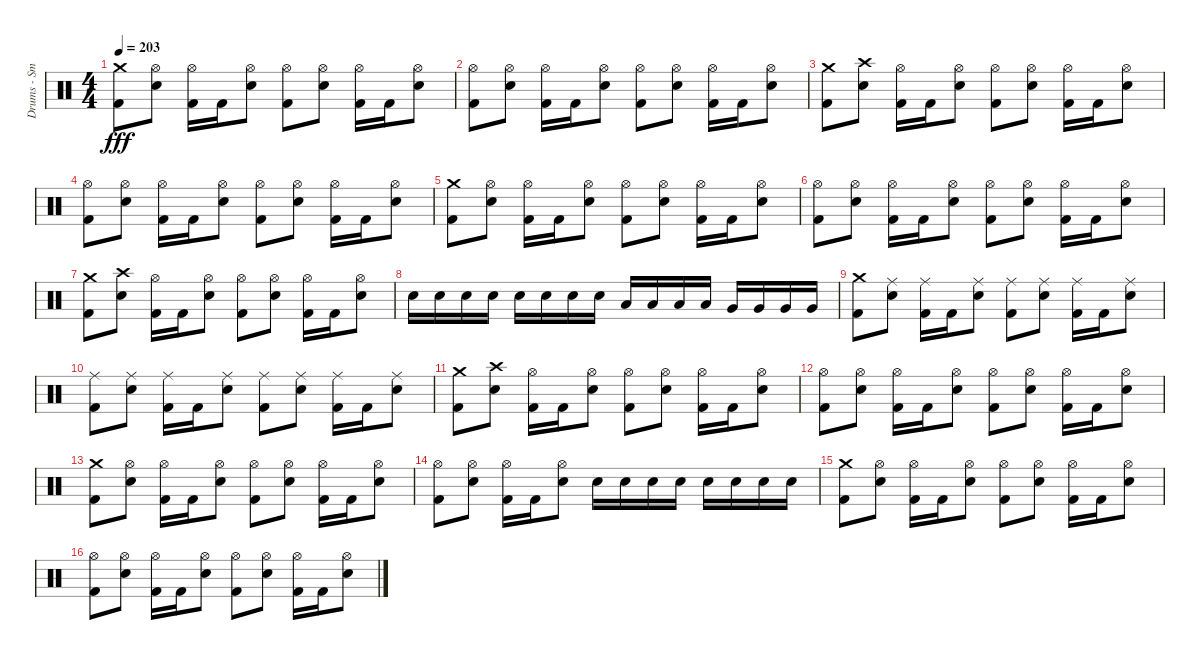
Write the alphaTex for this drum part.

\track ("Drums - Smelly" "Drums - Sm") {instrument percussion}
\staff {score}
\articulation defaults
\ts (4 4)
\tempo 203
\clef neutral
\ks c
("Kick (hit) 2" "Crash medium (hit)").8{dy fff} ("Electric Snare (hit)" "Hi-Hat (open)").8 ("Kick (hit) 2" "Hi-Hat (open)").16 "Kick (hit) 2".16 ("Electric Snare (hit)" "Hi-Hat (open)").8 ("Kick (hit) 2" "Hi-Hat (open)").8 ("Electric Snare (hit)" "Hi-Hat (open)").8 ("Kick (hit) 2" "Hi-Hat (open)").16 "Kick (hit) 2".16 ("Electric Snare (hit)" "Hi-Hat (open)").8 |
("Kick (hit) 2" "Hi-Hat (open)").8 ("Electric Snare (hit)" "Hi-Hat (open)").8 ("Kick (hit) 2" "Hi-Hat (open)").16 "Kick (hit) 2".16 ("Electric Snare (hit)" "Hi-Hat (open)").8 ("Kick (hit) 2" "Hi-Hat (open)").8 ("Electric Snare (hit)" "Hi-Hat (open)").8 ("Kick (hit) 2" "Hi-Hat (open)").16 "Kick (hit) 2".16 ("Electric Snare (hit)" "Hi-Hat (open)").8 |
("Kick (hit) 2" "Crash medium (hit)").8 ("Electric Snare (hit)" "Crash high (hit)").8 ("Kick (hit) 2" "Hi-Hat (open)").16 "Kick (hit) 2".16 ("Electric Snare (hit)" "Hi-Hat (open)").8 ("Kick (hit) 2" "Hi-Hat (open)").8 ("Electric Snare (hit)" "Hi-Hat (open)").8 ("Kick (hit) 2" "Hi-Hat (open)").16 "Kick (hit) 2".16 ("Electric Snare (hit)" "Hi-Hat (open)").8 |
("Kick (hit) 2" "Hi-Hat (open)").8 ("Electric Snare (hit)" "Hi-Hat (open)").8 ("Kick (hit) 2" "Hi-Hat (open)").16 "Kick (hit) 2".16 ("Electric Snare (hit)" "Hi-Hat (open)").8 ("Kick (hit) 2" "Hi-Hat (open)").8 ("Electric Snare (hit)" "Hi-Hat (open)").8 ("Kick (hit) 2" "Hi-Hat (open)").16 "Kick (hit) 2".16 ("Electric Snare (hit)" "Hi-Hat (open)").8 |
("Kick (hit) 2" "Crash medium (hit)").8 ("Electric Snare (hit)" "Hi-Hat (open)").8 ("Kick (hit) 2" "Hi-Hat (open)").16 "Kick (hit) 2".16 ("Electric Snare (hit)" "Hi-Hat (open)").8 ("Kick (hit) 2" "Hi-Hat (open)").8 ("Electric Snare (hit)" "Hi-Hat (open)").8 ("Kick (hit) 2" "Hi-Hat (open)").16 "Kick (hit) 2".16 ("Electric Snare (hit)" "Hi-Hat (open)").8 |
("Kick (hit) 2" "Hi-Hat (open)").8 ("Electric Snare (hit)" "Hi-Hat (open)").8 ("Kick (hit) 2" "Hi-Hat (open)").16 "Kick (hit) 2".16 ("Electric Snare (hit)" "Hi-Hat (open)").8 ("Kick (hit) 2" "Hi-Hat (open)").8 ("Electric Snare (hit)" "Hi-Hat (open)").8 ("Kick (hit) 2" "Hi-Hat (open)").16 "Kick (hit) 2".16 ("Electric Snare (hit)" "Hi-Hat (open)").8 |
("Kick (hit) 2" "Crash medium (hit)").8 ("Electric Snare (hit)" "Crash high (hit)").8 ("Kick (hit) 2" "Hi-Hat (open)").16 "Kick (hit) 2".16 ("Electric Snare (hit)" "Hi-Hat (open)").8 ("Kick (hit) 2" "Hi-Hat (open)").8 ("Electric Snare (hit)" "Hi-Hat (open)").8 ("Kick (hit) 2" "Hi-Hat (open)").16 "Kick (hit) 2".16 ("Electric Snare (hit)" "Hi-Hat (open)").8 |
"Electric Snare (hit)".16 "Electric Snare (hit)".16 "Electric Snare (hit)".16 "Electric Snare (hit)".16 "Electric Snare (hit)".16 "Electric Snare (hit)".16 "Electric Snare (hit)".16 "Electric Snare (hit)".16 "Low Tom (hit)".16 "Low Tom (hit)".16 "Low Tom (hit)".16 "Low Tom (hit)".16 "Very Low Tom (hit)".16 "Very Low Tom (hit)".16 "Very Low Tom (hit)".16 "Very Low Tom (hit)".16 |
("Kick (hit) 2" "Crash medium (hit)").8 ("Electric Snare (hit)" "Ride (middle)").8 ("Kick (hit) 2" "Ride (middle)").16 "Kick (hit) 2".16 ("Electric Snare (hit)" "Ride (middle)").8 ("Kick (hit) 2" "Ride (middle)").8 ("Electric Snare (hit)" "Ride (middle)").8 ("Kick (hit) 2" "Ride (middle)").16 "Kick (hit) 2".16 ("Electric Snare (hit)" "Ride (middle)").8 |
("Kick (hit) 2" "Ride (middle)").8 ("Electric Snare (hit)" "Ride (middle)").8 ("Kick (hit) 2" "Ride (middle)").16 "Kick (hit) 2".16 ("Electric Snare (hit)" "Ride (middle)").8 ("Kick (hit) 2" "Ride (middle)").8 ("Electric Snare (hit)" "Ride (middle)").8 ("Kick (hit) 2" "Ride (middle)").16 "Kick (hit) 2".16 ("Electric Snare (hit)" "Ride (middle)").8 |
("Kick (hit) 2" "Crash medium (hit)").8 ("Electric Snare (hit)" "Crash high (hit)").8 ("Kick (hit) 2" "Hi-Hat (open)").16 "Kick (hit) 2".16 ("Electric Snare (hit)" "Hi-Hat (open)").8 ("Kick (hit) 2" "Hi-Hat (open)").8 ("Electric Snare (hit)" "Hi-Hat (open)").8 ("Kick (hit) 2" "Hi-Hat (open)").16 "Kick (hit) 2".16 ("Electric Snare (hit)" "Hi-Hat (open)").8 |
("Kick (hit) 2" "Hi-Hat (open)").8 ("Electric Snare (hit)" "Hi-Hat (open)").8 ("Kick (hit) 2" "Hi-Hat (open)").16 "Kick (hit) 2".16 ("Electric Snare (hit)" "Hi-Hat (open)").8 ("Kick (hit) 2" "Hi-Hat (open)").8 ("Electric Snare (hit)" "Hi-Hat (open)").8 ("Kick (hit) 2" "Hi-Hat (open)").16 "Kick (hit) 2".16 ("Electric Snare (hit)" "Hi-Hat (open)").8 |
("Kick (hit) 2" "Crash medium (hit)").8 ("Electric Snare (hit)" "Hi-Hat (open)").8 ("Kick (hit) 2" "Hi-Hat (open)").16 "Kick (hit) 2".16 ("Electric Snare (hit)" "Hi-Hat (open)").8 ("Kick (hit) 2" "Hi-Hat (open)").8 ("Electric Snare (hit)" "Hi-Hat (open)").8 ("Kick (hit) 2" "Hi-Hat (open)").16 "Kick (hit) 2".16 ("Electric Snare (hit)" "Hi-Hat (open)").8 |
("Kick (hit) 2" "Hi-Hat (open)").8 ("Electric Snare (hit)" "Hi-Hat (open)").8 ("Kick (hit) 2" "Hi-Hat (open)").16 "Kick (hit) 2".16 ("Electric Snare (hit)" "Hi-Hat (open)").8 "Electric Snare (hit)".16 "Electric Snare (hit)".16 "Electric Snare (hit)".16 "Electric Snare (hit)".16 "Electric Snare (hit)".16 "Electric Snare (hit)".16 "Electric Snare (hit)".16 "Electric Snare (hit)".16 |
("Kick (hit) 2" "Crash medium (hit)").8 ("Electric Snare (hit)" "Hi-Hat (open)").8 ("Kick (hit) 2" "Hi-Hat (open)").16 "Kick (hit) 2".16 ("Electric Snare (hit)" "Hi-Hat (open)").8 ("Kick (hit) 2" "Hi-Hat (open)").8 ("Electric Snare (hit)" "Hi-Hat (open)").8 ("Kick (hit) 2" "Hi-Hat (open)").16 "Kick (hit) 2".16 ("Electric Snare (hit)" "Hi-Hat (open)").8 |
("Kick (hit) 2" "Hi-Hat (open)").8 ("Electric Snare (hit)" "Hi-Hat (open)").8 ("Kick (hit) 2" "Hi-Hat (open)").16 "Kick (hit) 2".16 ("Electric Snare (hit)" "Hi-Hat (open)").8 ("Kick (hit) 2" "Hi-Hat (open)").8 ("Electric Snare (hit)" "Hi-Hat (open)").8 ("Kick (hit) 2" "Hi-Hat (open)").16 "Kick (hit) 2".16 ("Electric Snare (hit)" "Hi-Hat (open)").8
